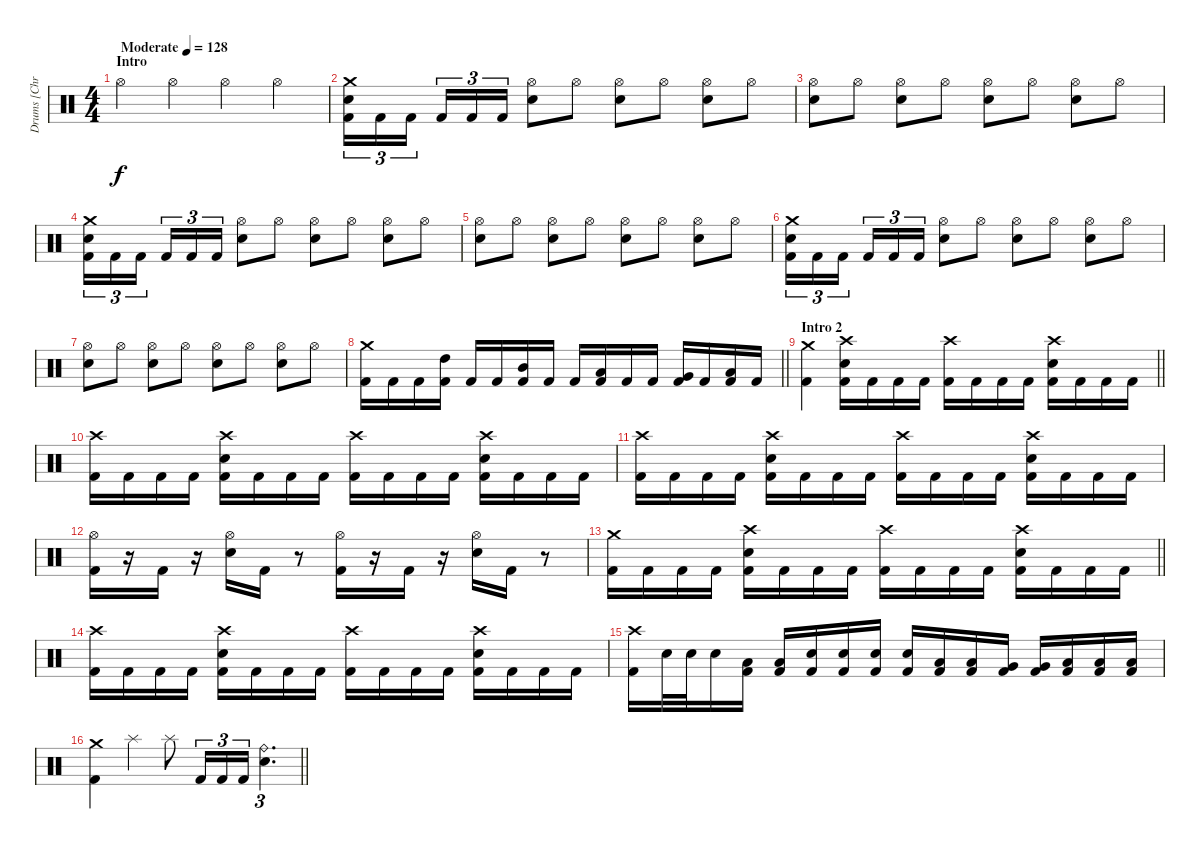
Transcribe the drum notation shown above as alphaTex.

\track ("Drums [Chris Adler]" "Drums [Chr") {instrument percussion}
\staff {score}
\articulation defaults
\ts (4 4)
\section ("" "Intro")
\tempo (128 "Moderate")
\clef neutral
\ks c "Hi-Hat (open)".4{dy f} "Hi-Hat (open)".4 "Hi-Hat (open)".4 "Hi-Hat (open)".4
|
("Crash medium (hit)" "Snare (hit) 2" "Kick (hit) 2").16{tu (3 2)} "Kick (hit) 2".16{tu (3 2)} "Kick (hit) 2".16{tu (3 2) beam splitsecondary} "Kick (hit) 2".16{tu (3 2)} "Kick (hit) 2".16{tu (3 2)} "Kick (hit) 2".16{tu (3 2)} ("Hi-Hat (open)" "Snare (hit) 2").8 "Hi-Hat (open)".8 ("Hi-Hat (open)" "Snare (hit) 2").8 "Hi-Hat (open)".8 ("Hi-Hat (open)" "Snare (hit) 2").8 "Hi-Hat (open)".8 |
("Hi-Hat (open)" "Snare (hit) 2").8 "Hi-Hat (open)".8 ("Hi-Hat (open)" "Snare (hit) 2").8 "Hi-Hat (open)".8 ("Hi-Hat (open)" "Snare (hit) 2").8 "Hi-Hat (open)".8 ("Hi-Hat (open)" "Snare (hit) 2").8 "Hi-Hat (open)".8 |
("Crash medium (hit)" "Snare (hit) 2" "Kick (hit) 2").16{tu (3 2)} "Kick (hit) 2".16{tu (3 2)} "Kick (hit) 2".16{tu (3 2) beam splitsecondary} "Kick (hit) 2".16{tu (3 2)} "Kick (hit) 2".16{tu (3 2)} "Kick (hit) 2".16{tu (3 2)} ("Hi-Hat (open)" "Snare (hit) 2").8 "Hi-Hat (open)".8 ("Hi-Hat (open)" "Snare (hit) 2").8 "Hi-Hat (open)".8 ("Hi-Hat (open)" "Snare (hit) 2").8 "Hi-Hat (open)".8 |
("Hi-Hat (open)" "Snare (hit) 2").8 "Hi-Hat (open)".8 ("Hi-Hat (open)" "Snare (hit) 2").8 "Hi-Hat (open)".8 ("Hi-Hat (open)" "Snare (hit) 2").8 "Hi-Hat (open)".8 ("Hi-Hat (open)" "Snare (hit) 2").8 "Hi-Hat (open)".8 |
("Crash medium (hit)" "Snare (hit) 2" "Kick (hit) 2").16{tu (3 2)} "Kick (hit) 2".16{tu (3 2)} "Kick (hit) 2".16{tu (3 2) beam splitsecondary} "Kick (hit) 2".16{tu (3 2)} "Kick (hit) 2".16{tu (3 2)} "Kick (hit) 2".16{tu (3 2)} ("Hi-Hat (open)" "Snare (hit) 2").8 "Hi-Hat (open)".8 ("Hi-Hat (open)" "Snare (hit) 2").8 "Hi-Hat (open)".8 ("Hi-Hat (open)" "Snare (hit) 2").8 "Hi-Hat (open)".8 |
("Hi-Hat (open)" "Snare (hit) 2").8 "Hi-Hat (open)".8 ("Hi-Hat (open)" "Snare (hit) 2").8 "Hi-Hat (open)".8 ("Hi-Hat (open)" "Snare (hit) 2").8 "Hi-Hat (open)".8 ("Hi-Hat (open)" "Snare (hit) 2").8 "Hi-Hat (open)".8 |
\barLineRight lightlight
("Crash medium (hit)" "Kick (hit) 2").16 "Kick (hit) 2".16 "Kick (hit) 2".16 ("High Tom (hit)" "Kick (hit) 2").16 "Kick (hit) 2".16 "Kick (hit) 2".16 ("Mid Tom (hit)" "Kick (hit) 2").16 "Kick (hit) 2".16 "Kick (hit) 2".16 ("Low Tom (hit)" "Kick (hit) 2").16 "Kick (hit) 2".16 "Kick (hit) 2".16 ("Very Low Tom (hit)" "Kick (hit) 2").16 "Kick (hit) 2".16 ("Low Floor Tom (hit)" "Kick (hit) 2").16 "Kick (hit) 2".16 |
\section ("" "Intro 2")
\barLineRight lightlight
("Crash medium (hit)" "Kick (hit) 2").4 ("Crash high (hit)" "Snare (hit) 2" "Kick (hit) 2").16 "Kick (hit) 2".16 "Kick (hit) 2".16 "Kick (hit) 2".16 ("Crash high (hit)" "Kick (hit) 2").16 "Kick (hit) 2".16 "Kick (hit) 2".16 "Kick (hit) 2".16 ("Crash high (hit)" "Snare (hit) 2" "Kick (hit) 2").16 "Kick (hit) 2".16 "Kick (hit) 2".16 "Kick (hit) 2".16 |
("Crash high (hit)" "Kick (hit) 2").16 "Kick (hit) 2".16 "Kick (hit) 2".16 "Kick (hit) 2".16 ("Crash high (hit)" "Snare (hit) 2" "Kick (hit) 2").16 "Kick (hit) 2".16 "Kick (hit) 2".16 "Kick (hit) 2".16 ("Crash high (hit)" "Kick (hit) 2").16 "Kick (hit) 2".16 "Kick (hit) 2".16 "Kick (hit) 2".16 ("Crash high (hit)" "Snare (hit) 2" "Kick (hit) 2").16 "Kick (hit) 2".16 "Kick (hit) 2".16 "Kick (hit) 2".16 |
("Crash high (hit)" "Kick (hit) 2").16 "Kick (hit) 2".16 "Kick (hit) 2".16 "Kick (hit) 2".16 ("Crash high (hit)" "Snare (hit) 2" "Kick (hit) 2").16 "Kick (hit) 2".16 "Kick (hit) 2".16 "Kick (hit) 2".16 ("Crash high (hit)" "Kick (hit) 2").16 "Kick (hit) 2".16 "Kick (hit) 2".16 "Kick (hit) 2".16 ("Crash high (hit)" "Snare (hit) 2" "Kick (hit) 2").16 "Kick (hit) 2".16 "Kick (hit) 2".16 "Kick (hit) 2".16 |
("Hi-Hat (open)" "Kick (hit) 2").16 r.16 "Kick (hit) 2".16 r.16 ("Hi-Hat (open)" "Snare (hit) 2").16 "Kick (hit) 2".16 r.8 ("Hi-Hat (open)" "Kick (hit) 2").16 r.16 "Kick (hit) 2".16 r.16 ("Hi-Hat (open)" "Snare (hit) 2").16 "Kick (hit) 2".16 r.8 |
\barLineRight lightlight
("Crash medium (hit)" "Kick (hit) 2").16 "Kick (hit) 2".16 "Kick (hit) 2".16 "Kick (hit) 2".16 ("Crash high (hit)" "Snare (hit) 2" "Kick (hit) 2").16 "Kick (hit) 2".16 "Kick (hit) 2".16 "Kick (hit) 2".16 ("Crash high (hit)" "Kick (hit) 2").16 "Kick (hit) 2".16 "Kick (hit) 2".16 "Kick (hit) 2".16 ("Crash high (hit)" "Snare (hit) 2" "Kick (hit) 2").16 "Kick (hit) 2".16 "Kick (hit) 2".16 "Kick (hit) 2".16 |
("Crash high (hit)" "Kick (hit) 2").16 "Kick (hit) 2".16 "Kick (hit) 2".16 "Kick (hit) 2".16 ("Crash high (hit)" "Snare (hit) 2" "Kick (hit) 2").16 "Kick (hit) 2".16 "Kick (hit) 2".16 "Kick (hit) 2".16 ("Crash high (hit)" "Kick (hit) 2").16 "Kick (hit) 2".16 "Kick (hit) 2".16 "Kick (hit) 2".16 ("Crash high (hit)" "Snare (hit) 2" "Kick (hit) 2").16 "Kick (hit) 2".16 "Kick (hit) 2".16 "Kick (hit) 2".16 |
("Crash high (hit)" "Kick (hit) 2").16 "Snare (hit) 2".32 "Snare (hit) 2".32 "Snare (hit) 2".16 ("Low Tom (hit)" "Kick (hit) 2").16 ("Low Tom (hit)" "Kick (hit) 2").16 ("Snare (hit) 2" "Kick (hit) 2").16 ("Snare (hit) 2" "Kick (hit) 2").16 ("Snare (hit) 2" "Kick (hit) 2").16 ("Snare (hit) 2" "Kick (hit) 2").16 ("Low Tom (hit)" "Kick (hit) 2").16 ("Low Tom (hit)" "Kick (hit) 2").16 ("Very Low Tom (hit)" "Kick (hit) 2").16 ("Very Low Tom (hit)" "Kick (hit) 2").16 ("Low Floor Tom (hit)" "Kick (hit) 2").16 ("Low Floor Tom (hit)" "Kick (hit) 2").16 ("Low Floor Tom (hit)" "Kick (hit) 2").16 |
\barLineRight lightlight
("Crash medium (hit)" "Kick (hit) 2").4 "Splash (hit)".4 "Splash (hit)".8 "Kick (hit) 2".16{tu (3 2)} "Kick (hit) 2".16{tu (3 2)} "Kick (hit) 2".16{tu (3 2)} ("Ride (bell)" "Snare (hit) 2").4{d tu (3 2)}
